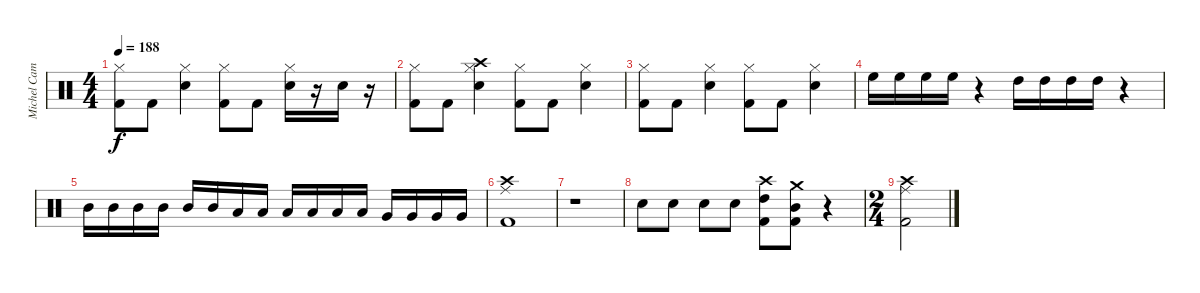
\track ("Michel Camiade" "Michel Cam") {instrument percussion}
\staff {score}
\articulation defaults
\ts (4 4)
\tempo 188
\clef neutral
\ks c
("Hi-Hat (closed)" "Kick (hit) 2").8{dy f} "Kick (hit) 2".8 ("Hi-Hat (closed)" "Snare (hit) 2").4 ("Hi-Hat (closed)" "Kick (hit) 2").8 "Kick (hit) 2".8 ("Hi-Hat (closed)" "Snare (hit) 2").16 r.16 "Snare (hit) 2".16 r.16 |
("Hi-Hat (closed)" "Kick (hit) 2").8 "Kick (hit) 2".8 ("Crash high (hit)" "Hi-Hat (closed)" "Snare (hit) 2").4 ("Hi-Hat (closed)" "Kick (hit) 2").8 "Kick (hit) 2".8 ("Hi-Hat (closed)" "Snare (hit) 2").4 |
("Hi-Hat (closed)" "Kick (hit) 2").8 "Kick (hit) 2".8 ("Hi-Hat (closed)" "Snare (hit) 2").4 ("Hi-Hat (closed)" "Kick (hit) 2").8 "Kick (hit) 2".8 ("Hi-Hat (closed)" "Snare (hit) 2").4 |
"High Floor Tom (hit)".16 "High Floor Tom (hit)".16 "High Floor Tom (hit)".16 "High Floor Tom (hit)".16 r.4 "High Tom (hit)".16 "High Tom (hit)".16 "High Tom (hit)".16 "High Tom (hit)".16 r.4 |
"Mid Tom (hit)".16 "Mid Tom (hit)".16 "Mid Tom (hit)".16 "Mid Tom (hit)".16 "Mid Tom (hit)".16 "Mid Tom (hit)".16 "Low Tom (hit)".16 "Low Tom (hit)".16 "Low Tom (hit)".16 "Low Tom (hit)".16 "Low Tom (hit)".16 "Low Tom (hit)".16 "Very Low Tom (hit)".16 "Very Low Tom (hit)".16 "Very Low Tom (hit)".16 "Very Low Tom (hit)".16 |
("Crash high (hit)" "Ride (middle)" "Kick (hit) 2").1 |
r.1 |
"Snare (hit) 2".8 "Snare (hit) 2".8 "Snare (hit) 2".8 "Snare (hit) 2".8 ("Crash high (hit)" "High Tom (hit)" "Kick (hit) 2").8 ("Crash medium (hit)" "Mid Tom (hit)" "Kick (hit) 2").8 r.4 |
\ts (2 4)
("Crash high (hit)" "Ride (middle)" "Kick (hit) 2").2
